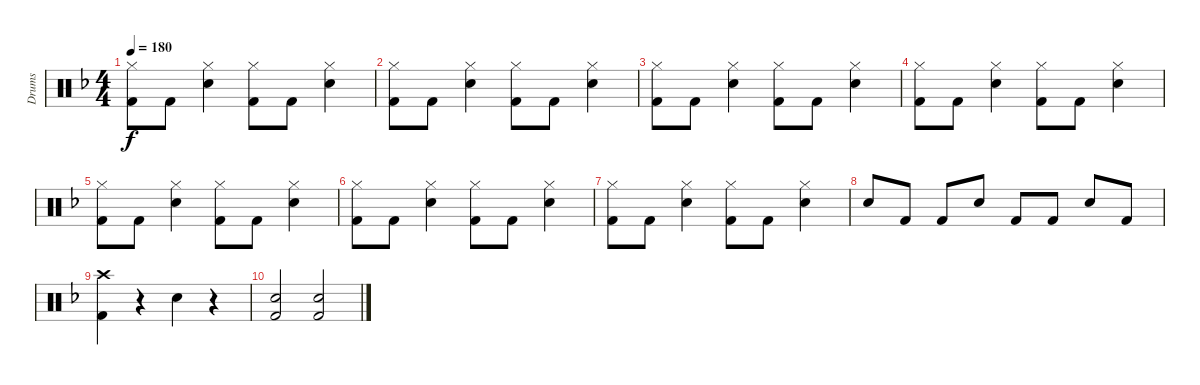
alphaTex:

\track ("Drums" "Drums") {instrument percussion}
\staff {score}
\articulation defaults
\ts (4 4)
\tempo 180
\clef neutral
\ks dminor
("Hi-Hat (closed)" "Kick (hit) 2").8{dy f} "Kick (hit) 2".8 ("Hi-Hat (closed)" "Snare (hit) 2").4 ("Hi-Hat (closed)" "Kick (hit) 2").8 "Kick (hit) 2".8 ("Hi-Hat (closed)" "Snare (hit) 2").4 |
("Hi-Hat (closed)" "Kick (hit) 2").8 "Kick (hit) 2".8 ("Hi-Hat (closed)" "Snare (hit) 2").4 ("Hi-Hat (closed)" "Kick (hit) 2").8 "Kick (hit) 2".8 ("Hi-Hat (closed)" "Snare (hit) 2").4 |
("Hi-Hat (closed)" "Kick (hit) 2").8 "Kick (hit) 2".8 ("Hi-Hat (closed)" "Snare (hit) 2").4 ("Hi-Hat (closed)" "Kick (hit) 2").8 "Kick (hit) 2".8 ("Hi-Hat (closed)" "Snare (hit) 2").4 |
("Hi-Hat (closed)" "Kick (hit) 2").8 "Kick (hit) 2".8 ("Hi-Hat (closed)" "Snare (hit) 2").4 ("Hi-Hat (closed)" "Kick (hit) 2").8 "Kick (hit) 2".8 ("Hi-Hat (closed)" "Snare (hit) 2").4 |
("Hi-Hat (closed)" "Kick (hit) 2").8 "Kick (hit) 2".8 ("Hi-Hat (closed)" "Snare (hit) 2").4 ("Hi-Hat (closed)" "Kick (hit) 2").8 "Kick (hit) 2".8 ("Hi-Hat (closed)" "Snare (hit) 2").4 |
("Hi-Hat (closed)" "Kick (hit) 2").8 "Kick (hit) 2".8 ("Hi-Hat (closed)" "Snare (hit) 2").4 ("Hi-Hat (closed)" "Kick (hit) 2").8 "Kick (hit) 2".8 ("Hi-Hat (closed)" "Snare (hit) 2").4 |
("Hi-Hat (closed)" "Kick (hit) 2").8 "Kick (hit) 2".8 ("Hi-Hat (closed)" "Snare (hit) 2").4 ("Hi-Hat (closed)" "Kick (hit) 2").8 "Kick (hit) 2".8 ("Hi-Hat (closed)" "Snare (hit) 2").4 |
"Snare (hit) 2".8 "Kick (hit) 2".8 "Kick (hit) 2".8 "Snare (hit) 2".8 "Kick (hit) 2".8 "Kick (hit) 2".8 "Snare (hit) 2".8 "Kick (hit) 2".8 |
("Crash high (hit)" "Kick (hit) 2").4{volume 0} r.4 "Snare (hit) 2".4 r.4 |
("Snare (hit) 2" "Kick (hit) 2").2 ("Snare (hit) 2" "Kick (hit) 2").2
